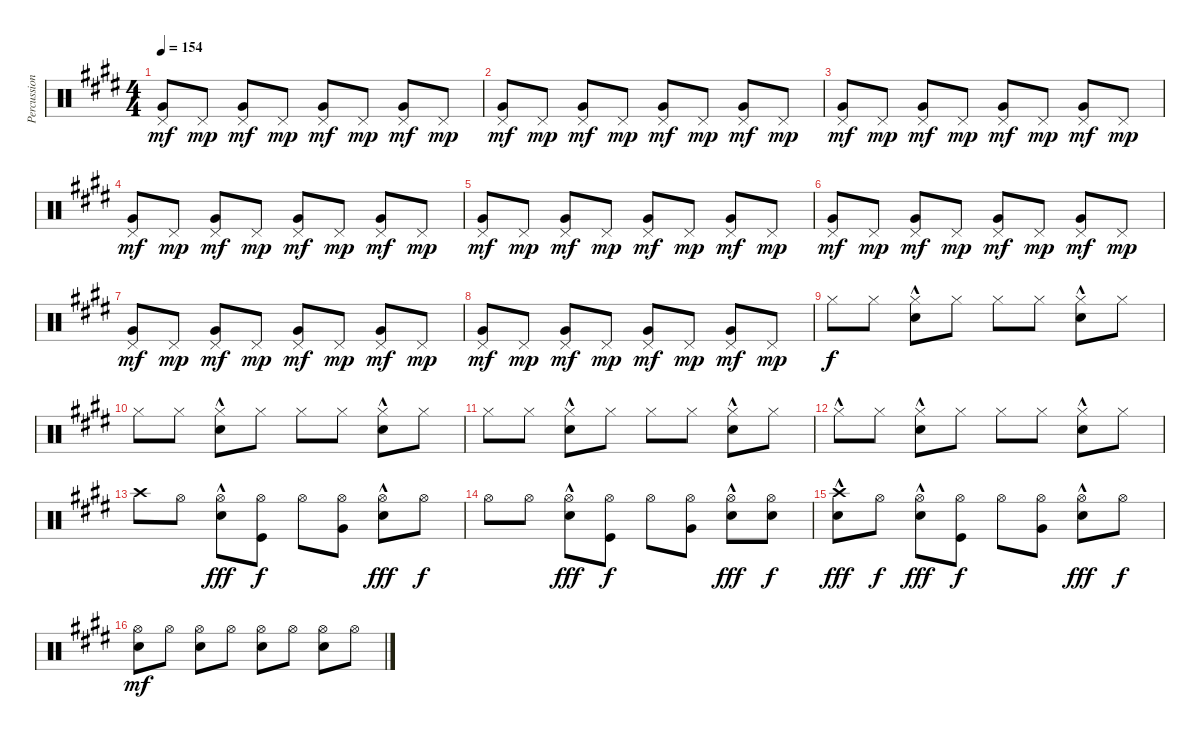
\track ("Percussion (Derek Grant)" "Percussion") {instrument percussion}
\staff {score}
\articulation defaults
\ts (4 4)
\tempo 154
\clef neutral
\ks c#minor
("Pedal Hi-Hat (hit)" "Very Low Tom (hit)").8{dy mf} "Pedal Hi-Hat (hit)".8{dy mp} ("Pedal Hi-Hat (hit)" "Very Low Tom (hit)").8{dy mf} "Pedal Hi-Hat (hit)".8{dy mp} ("Pedal Hi-Hat (hit)" "Very Low Tom (hit)").8{dy mf} "Pedal Hi-Hat (hit)".8{dy mp} ("Pedal Hi-Hat (hit)" "Very Low Tom (hit)").8{dy mf} "Pedal Hi-Hat (hit)".8{dy mp} |
("Pedal Hi-Hat (hit)" "Very Low Tom (hit)").8{dy mf} "Pedal Hi-Hat (hit)".8{dy mp} ("Pedal Hi-Hat (hit)" "Very Low Tom (hit)").8{dy mf} "Pedal Hi-Hat (hit)".8{dy mp} ("Pedal Hi-Hat (hit)" "Very Low Tom (hit)").8{dy mf} "Pedal Hi-Hat (hit)".8{dy mp} ("Pedal Hi-Hat (hit)" "Very Low Tom (hit)").8{dy mf} "Pedal Hi-Hat (hit)".8{dy mp} |
("Pedal Hi-Hat (hit)" "Very Low Tom (hit)").8{dy mf} "Pedal Hi-Hat (hit)".8{dy mp} ("Pedal Hi-Hat (hit)" "Very Low Tom (hit)").8{dy mf} "Pedal Hi-Hat (hit)".8{dy mp} ("Pedal Hi-Hat (hit)" "Very Low Tom (hit)").8{dy mf} "Pedal Hi-Hat (hit)".8{dy mp} ("Pedal Hi-Hat (hit)" "Very Low Tom (hit)").8{dy mf} "Pedal Hi-Hat (hit)".8{dy mp} |
("Pedal Hi-Hat (hit)" "Very Low Tom (hit)").8{dy mf} "Pedal Hi-Hat (hit)".8{dy mp} ("Pedal Hi-Hat (hit)" "Very Low Tom (hit)").8{dy mf} "Pedal Hi-Hat (hit)".8{dy mp} ("Pedal Hi-Hat (hit)" "Very Low Tom (hit)").8{dy mf} "Pedal Hi-Hat (hit)".8{dy mp} ("Pedal Hi-Hat (hit)" "Very Low Tom (hit)").8{dy mf} "Pedal Hi-Hat (hit)".8{dy mp} |
("Pedal Hi-Hat (hit)" "Very Low Tom (hit)").8{dy mf} "Pedal Hi-Hat (hit)".8{dy mp} ("Pedal Hi-Hat (hit)" "Very Low Tom (hit)").8{dy mf} "Pedal Hi-Hat (hit)".8{dy mp} ("Pedal Hi-Hat (hit)" "Very Low Tom (hit)").8{dy mf} "Pedal Hi-Hat (hit)".8{dy mp} ("Pedal Hi-Hat (hit)" "Very Low Tom (hit)").8{dy mf} "Pedal Hi-Hat (hit)".8{dy mp} |
("Pedal Hi-Hat (hit)" "Very Low Tom (hit)").8{dy mf} "Pedal Hi-Hat (hit)".8{dy mp} ("Pedal Hi-Hat (hit)" "Very Low Tom (hit)").8{dy mf} "Pedal Hi-Hat (hit)".8{dy mp} ("Pedal Hi-Hat (hit)" "Very Low Tom (hit)").8{dy mf} "Pedal Hi-Hat (hit)".8{dy mp} ("Pedal Hi-Hat (hit)" "Very Low Tom (hit)").8{dy mf} "Pedal Hi-Hat (hit)".8{dy mp} |
("Pedal Hi-Hat (hit)" "Very Low Tom (hit)").8{dy mf} "Pedal Hi-Hat (hit)".8{dy mp} ("Pedal Hi-Hat (hit)" "Very Low Tom (hit)").8{dy mf} "Pedal Hi-Hat (hit)".8{dy mp} ("Pedal Hi-Hat (hit)" "Very Low Tom (hit)").8{dy mf} "Pedal Hi-Hat (hit)".8{dy mp} ("Pedal Hi-Hat (hit)" "Very Low Tom (hit)").8{dy mf} "Pedal Hi-Hat (hit)".8{dy mp} |
("Pedal Hi-Hat (hit)" "Very Low Tom (hit)").8{dy mf} "Pedal Hi-Hat (hit)".8{dy mp} ("Pedal Hi-Hat (hit)" "Very Low Tom (hit)").8{dy mf} "Pedal Hi-Hat (hit)".8{dy mp} ("Pedal Hi-Hat (hit)" "Very Low Tom (hit)").8{dy mf} "Pedal Hi-Hat (hit)".8{dy mp} ("Pedal Hi-Hat (hit)" "Very Low Tom (hit)").8{dy mf} "Pedal Hi-Hat (hit)".8{dy mp} |
"Hi-Hat (closed)".8{dy f} "Hi-Hat (closed)".8 ("Hi-Hat (closed)" "Snare (hit) 2"{hac}).8 "Hi-Hat (closed)".8 "Hi-Hat (closed)".8 "Hi-Hat (closed)".8 ("Hi-Hat (closed)" "Snare (hit) 2"{hac}).8 "Hi-Hat (closed)".8 |
"Hi-Hat (closed)".8 "Hi-Hat (closed)".8 ("Hi-Hat (closed)" "Snare (hit) 2"{hac}).8 "Hi-Hat (closed)".8 "Hi-Hat (closed)".8 "Hi-Hat (closed)".8 ("Hi-Hat (closed)" "Snare (hit) 2"{hac}).8 "Hi-Hat (closed)".8 |
"Hi-Hat (closed)".8 "Hi-Hat (closed)".8 ("Hi-Hat (closed)" "Snare (hit) 2"{hac}).8 "Hi-Hat (closed)".8 "Hi-Hat (closed)".8 "Hi-Hat (closed)".8 ("Hi-Hat (closed)" "Snare (hit) 2"{hac}).8 "Hi-Hat (closed)".8 |
"Hi-Hat (closed)"{hac}.8 "Hi-Hat (closed)".8 ("Hi-Hat (closed)" "Snare (hit) 2"{hac}).8 "Hi-Hat (closed)".8 "Hi-Hat (closed)".8 "Hi-Hat (closed)".8 ("Hi-Hat (closed)" "Snare (hit) 2"{hac}).8 "Hi-Hat (closed)".8 |
"Crash high (hit)".8 "Hi-Hat (open)".8 ("Hi-Hat (open)" "Snare (hit) 2"{hac}).8{dy fff} ("Hi-Hat (open)" "Kick (hit)").8{dy f} "Hi-Hat (open)".8 ("Hi-Hat (open)" "Very Low Tom (hit)").8 ("Hi-Hat (open)" "Snare (hit) 2"{hac}).8{dy fff} "Hi-Hat (open)".8{dy f} |
"Hi-Hat (open)".8 "Hi-Hat (open)".8 ("Hi-Hat (open)" "Snare (hit) 2"{hac}).8{dy fff} ("Hi-Hat (open)" "Kick (hit)").8{dy f} "Hi-Hat (open)".8 ("Hi-Hat (open)" "Very Low Tom (hit)").8 ("Hi-Hat (open)" "Snare (hit) 2"{hac}).8{dy fff} ("Hi-Hat (open)" "Electric Snare (hit)").8{dy f} |
("Crash high (hit)"{hac} "Electric Snare (hit)").8{dy fff} "Hi-Hat (open)".8{dy f} ("Hi-Hat (open)" "Snare (hit) 2"{hac}).8{dy fff} ("Hi-Hat (open)" "Kick (hit)").8{dy f} "Hi-Hat (open)".8 ("Hi-Hat (open)" "Very Low Tom (hit)").8 ("Hi-Hat (open)" "Snare (hit) 2"{hac}).8{dy fff} "Hi-Hat (open)".8{dy f} |
("Hi-Hat (open)" "Snare (hit) 2").8{dy mf} "Hi-Hat (open)".8 ("Hi-Hat (open)" "Snare (hit) 2").8 "Hi-Hat (open)".8 ("Hi-Hat (open)" "Snare (hit) 2").8 "Hi-Hat (open)".8 ("Hi-Hat (open)" "Snare (hit) 2").8 "Hi-Hat (open)".8
